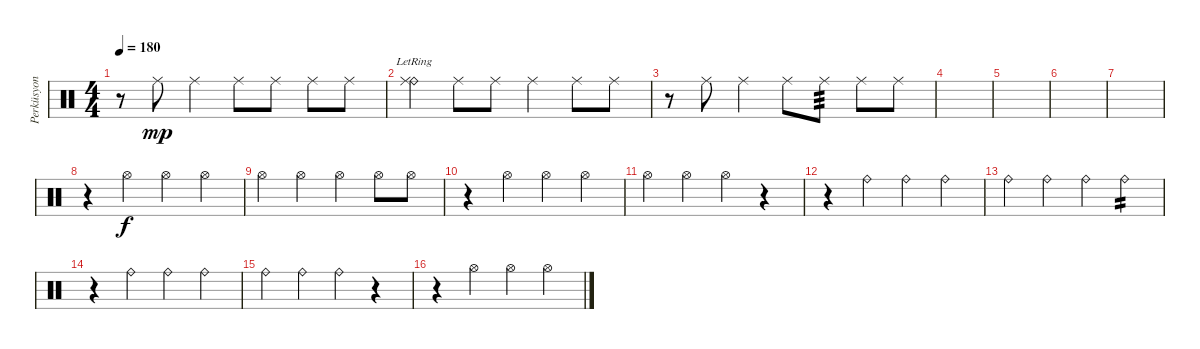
\track ("Perküsyon" "Perküsyon") {instrument percussion}
\staff {score}
\articulation defaults
\ts (4 4)
\tempo 180
\clef neutral
\ks c
r.8{dy mp} "Ride (middle)".8 "Ride (middle)".4 "Ride (middle)".8 "Ride (middle)".8 "Ride (middle)".8 "Ride (middle)".8 |
("Ride (bell)"{lr} "Ride (middle)").4 "Ride (middle)".8 "Ride (middle)".8 "Ride (middle)".4 "Ride (middle)".8 "Ride (middle)".8 |
r.8 "Ride (middle)".8 "Ride (middle)".4 "Ride (middle)".8 "Ride (middle)".8{tp 3} "Ride (middle)".8 "Ride (middle)".8 |
|
|
|
|
r.4 "Hi-Hat (open)".4{dy f} "Hi-Hat (open)".4 "Hi-Hat (open)".4 |
"Hi-Hat (open)".4 "Hi-Hat (open)".4 "Hi-Hat (open)".4 "Hi-Hat (open)".8 "Hi-Hat (open)".8 |
r.4 "Hi-Hat (open)".4 "Hi-Hat (open)".4 "Hi-Hat (open)".4 |
"Hi-Hat (open)".4 "Hi-Hat (open)".4 "Hi-Hat (open)".4 r.4 |
r.4 "Ride (bell)".4 "Ride (bell)".4 "Ride (bell)".4 |
"Ride (bell)".4 "Ride (bell)".4 "Ride (bell)".4 "Ride (bell)".4{tp 2} |
r.4 "Ride (bell)".4 "Ride (bell)".4 "Ride (bell)".4 |
"Ride (bell)".4 "Ride (bell)".4 "Ride (bell)".4 r.4 |
r.4 "Hi-Hat (open)".4 "Hi-Hat (open)".4 "Hi-Hat (open)".4
